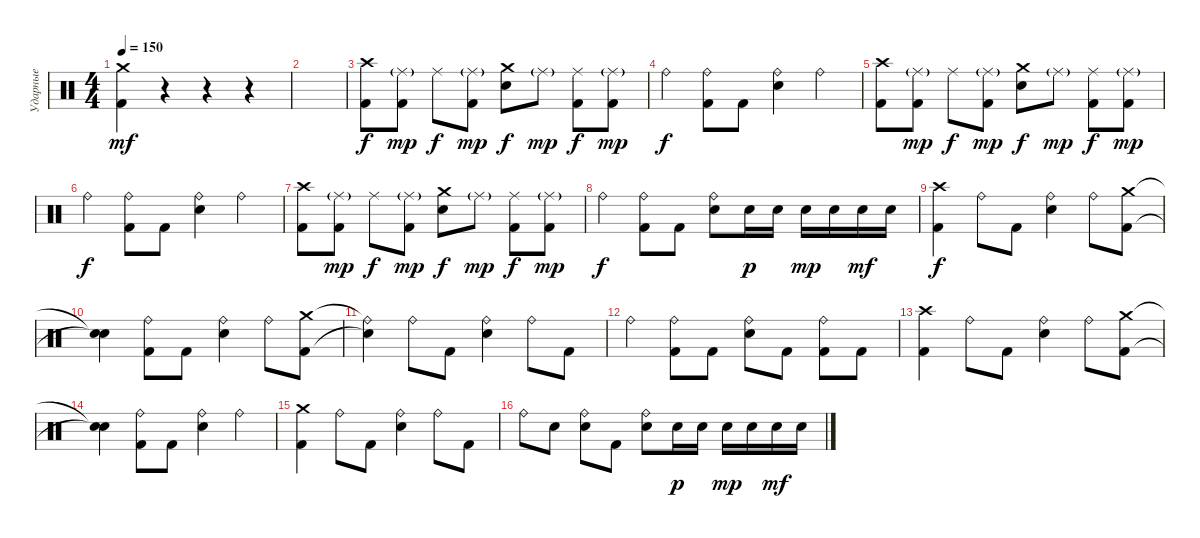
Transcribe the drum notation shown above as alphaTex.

\track ("Ударные" "Ударные") {instrument percussion}
\staff {score}
\articulation defaults
\ts (4 4)
\tempo 150
\clef neutral
\ks c
("Crash medium (hit)" "Kick (hit) 2").4{dy mf} r.4 r.4 r.4 |
|
("Crash high (hit)" "Kick (hit) 2").8{dy f} ("Ride (middle)"{g} "Kick (hit) 2").8{dy mp} "Ride (middle)".8{dy f} ("Ride (middle)"{g} "Kick (hit) 2").8{dy mp} ("Crash medium (hit)" "Snare (hit) 2").8{dy f} "Ride (middle)"{g}.8{dy mp} ("Ride (middle)" "Kick (hit) 2").8{dy f} ("Ride (middle)"{g} "Kick (hit) 2").8{dy mp} |
"Ride (bell)".4{dy f} ("Ride (bell)" "Kick (hit) 2").8 "Kick (hit) 2".8 ("Ride (bell)" "Snare (hit) 2").4 "Ride (bell)".4 |
("Crash high (hit)" "Kick (hit) 2").8 ("Ride (middle)"{g} "Kick (hit) 2").8{dy mp} "Ride (middle)".8{dy f} ("Ride (middle)"{g} "Kick (hit) 2").8{dy mp} ("Crash medium (hit)" "Snare (hit) 2").8{dy f} "Ride (middle)"{g}.8{dy mp} ("Ride (middle)" "Kick (hit) 2").8{dy f} ("Ride (middle)"{g} "Kick (hit) 2").8{dy mp} |
"Ride (bell)".4{dy f} ("Ride (bell)" "Kick (hit) 2").8 "Kick (hit) 2".8 ("Ride (bell)" "Snare (hit) 2").4 "Ride (bell)".4 |
("Crash high (hit)" "Kick (hit) 2").8 ("Ride (middle)"{g} "Kick (hit) 2").8{dy mp} "Ride (middle)".8{dy f} ("Ride (middle)"{g} "Kick (hit) 2").8{dy mp} ("Crash medium (hit)" "Snare (hit) 2").8{dy f} "Ride (middle)"{g}.8{dy mp} ("Ride (middle)" "Kick (hit) 2").8{dy f} ("Ride (middle)"{g} "Kick (hit) 2").8{dy mp} |
"Ride (bell)".4{dy f} ("Ride (bell)" "Kick (hit) 2").8 "Kick (hit) 2".8 ("Ride (bell)" "Snare (hit) 2").8 "Snare (hit) 2".16{dy p} "Snare (hit) 2".16 "Snare (hit) 2".16{dy mp} "Snare (hit) 2".16 "Snare (hit) 2".16{dy mf} "Snare (hit) 2".16 |
("Crash high (hit)" "Kick (hit) 2").4{dy f} "Ride (bell)".8 "Kick (hit) 2".8 ("Ride (bell)" "Snare (hit) 2").4 "Ride (bell)".8 ("Crash medium (hit)" "Kick (hit) 2").8 |
("Snare (hit)"{t} "Snare (hit)"{t}).4 ("Ride (bell)" "Kick (hit) 2").8 "Kick (hit) 2".8 ("Ride (bell)" "Snare (hit) 2").4 "Ride (bell)".8 ("Crash medium (hit)" "Kick (hit) 2").8 |
("Ride (bell)"{t} "Snare (hit)"{t}).4 "Ride (bell)".8 "Kick (hit) 2".8 ("Ride (bell)" "Snare (hit) 2").4 "Ride (bell)".8 "Kick (hit) 2".8 |
"Ride (bell)".4 ("Ride (bell)" "Kick (hit) 2").8 "Kick (hit) 2".8 ("Ride (bell)" "Snare (hit) 2").8 "Kick (hit) 2".8 ("Ride (bell)" "Kick (hit) 2").8 "Kick (hit) 2".8 |
("Crash high (hit)" "Kick (hit) 2").4 "Ride (bell)".8 "Kick (hit) 2".8 ("Ride (bell)" "Snare (hit) 2").4 "Ride (bell)".8 ("Crash medium (hit)" "Kick (hit) 2").8 |
("Snare (hit)"{t} "Snare (hit)"{t}).4 ("Ride (bell)" "Kick (hit) 2").8 "Kick (hit) 2".8 ("Ride (bell)" "Snare (hit) 2").4 "Ride (bell)".4 |
("Crash medium (hit)" "Kick (hit) 2").4 "Ride (bell)".8 "Kick (hit) 2".8 ("Ride (bell)" "Snare (hit) 2").4 "Ride (bell)".8 "Kick (hit) 2".8 |
"Ride (bell)".8 "Snare (hit) 2".8 ("Ride (bell)" "Snare (hit) 2").8 "Kick (hit) 2".8 ("Ride (bell)" "Snare (hit) 2").8 "Snare (hit) 2".16{dy p} "Snare (hit) 2".16 "Snare (hit) 2".16{dy mp} "Snare (hit) 2".16 "Snare (hit) 2".16{dy mf} "Snare (hit) 2".16
